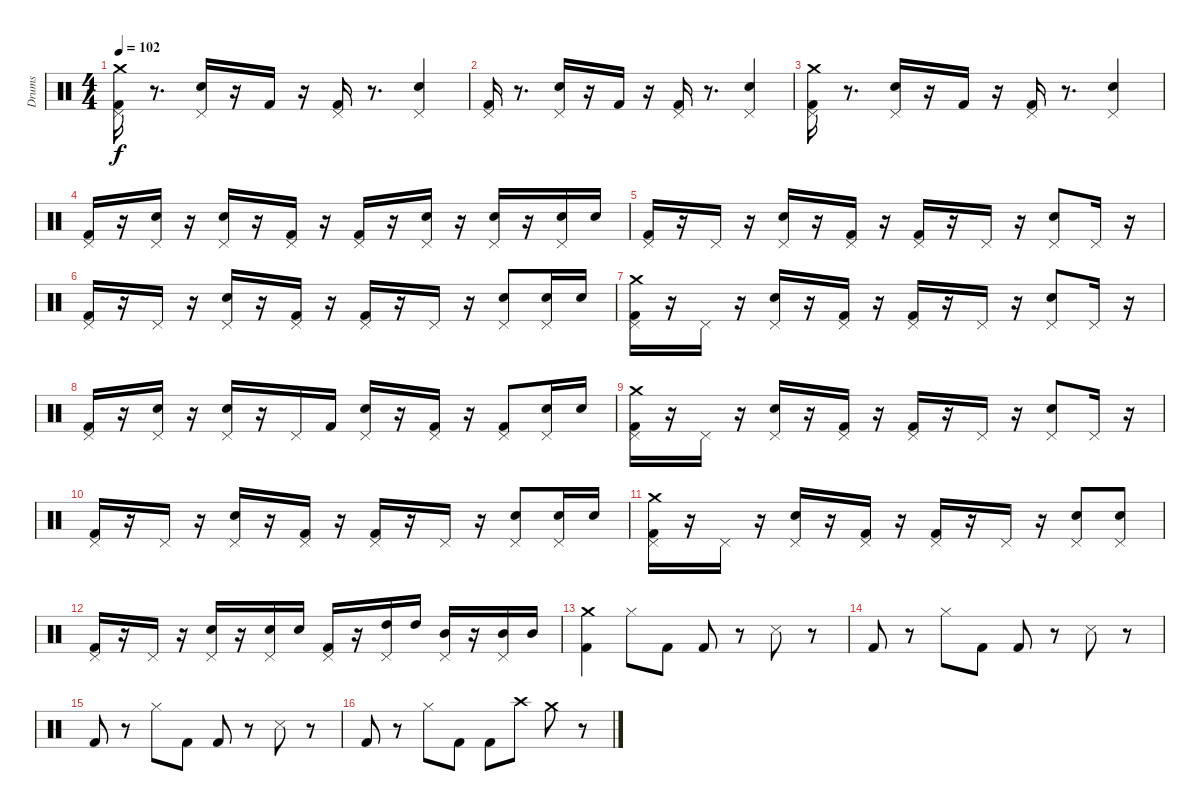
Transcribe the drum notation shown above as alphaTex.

\track ("Drums" "Drums") {instrument percussion}
\staff {score}
\articulation defaults
\ts (4 4)
\tempo 102
\clef neutral
\ks c
("Pedal Hi-Hat (hit)" "Kick (hit) 2" "Crash medium (hit)").16{dy f} r.8{d} ("Pedal Hi-Hat (hit)" "Snare (hit) 2").16 r.16 "Kick (hit) 2".16 r.16 ("Pedal Hi-Hat (hit)" "Kick (hit) 2").16 r.8{d} ("Snare (hit) 2" "Pedal Hi-Hat (hit)").4 |
("Pedal Hi-Hat (hit)" "Kick (hit) 2").16 r.8{d} ("Pedal Hi-Hat (hit)" "Snare (hit) 2").16 r.16 "Kick (hit) 2".16 r.16 ("Pedal Hi-Hat (hit)" "Kick (hit) 2").16 r.8{d} ("Snare (hit) 2" "Pedal Hi-Hat (hit)").4 |
("Crash medium (hit)" "Pedal Hi-Hat (hit)" "Kick (hit) 2").16 r.8{d} ("Pedal Hi-Hat (hit)" "Snare (hit) 2").16 r.16 "Kick (hit) 2".16 r.16 ("Pedal Hi-Hat (hit)" "Kick (hit) 2").16 r.8{d} ("Snare (hit) 2" "Pedal Hi-Hat (hit)").4 |
("Pedal Hi-Hat (hit)" "Kick (hit) 2").16 r.16 ("Pedal Hi-Hat (hit)" "Snare (hit) 2").16 r.16 ("Pedal Hi-Hat (hit)" "Snare (hit) 2").16 r.16 ("Pedal Hi-Hat (hit)" "Kick (hit) 2").16 r.16 ("Pedal Hi-Hat (hit)" "Kick (hit) 2").16 r.16 ("Pedal Hi-Hat (hit)" "Snare (hit) 2").16 r.16 ("Pedal Hi-Hat (hit)" "Snare (hit) 2").16 r.16 ("Pedal Hi-Hat (hit)" "Snare (hit) 2").16 "Snare (hit) 2".16 |
("Pedal Hi-Hat (hit)" "Kick (hit) 2").16 r.16 "Pedal Hi-Hat (hit)".16 r.16 ("Pedal Hi-Hat (hit)" "Snare (hit) 2").16 r.16 ("Pedal Hi-Hat (hit)" "Kick (hit) 2").16 r.16 ("Pedal Hi-Hat (hit)" "Kick (hit) 2").16 r.16 "Pedal Hi-Hat (hit)".16 r.16 ("Snare (hit) 2" "Pedal Hi-Hat (hit)").8 "Pedal Hi-Hat (hit)".16 r.16 |
("Pedal Hi-Hat (hit)" "Kick (hit) 2").16 r.16 "Pedal Hi-Hat (hit)".16 r.16 ("Pedal Hi-Hat (hit)" "Snare (hit) 2").16 r.16 ("Pedal Hi-Hat (hit)" "Kick (hit) 2").16 r.16 ("Pedal Hi-Hat (hit)" "Kick (hit) 2").16 r.16 "Pedal Hi-Hat (hit)".16 r.16 ("Snare (hit) 2" "Pedal Hi-Hat (hit)").8 ("Snare (hit) 2" "Pedal Hi-Hat (hit)").16 "Snare (hit) 2".16 |
("Crash medium (hit)" "Pedal Hi-Hat (hit)" "Kick (hit) 2").16 r.16 "Pedal Hi-Hat (hit)".16 r.16 ("Pedal Hi-Hat (hit)" "Snare (hit) 2").16 r.16 ("Pedal Hi-Hat (hit)" "Kick (hit) 2").16 r.16 ("Pedal Hi-Hat (hit)" "Kick (hit) 2").16 r.16 "Pedal Hi-Hat (hit)".16 r.16 ("Snare (hit) 2" "Pedal Hi-Hat (hit)").8 "Pedal Hi-Hat (hit)".16 r.16 |
("Pedal Hi-Hat (hit)" "Kick (hit) 2").16 r.16 ("Snare (hit) 2" "Pedal Hi-Hat (hit)").16 r.16 ("Pedal Hi-Hat (hit)" "Snare (hit) 2").16 r.16 "Pedal Hi-Hat (hit)".16 "Kick (hit) 2".16 ("Snare (hit) 2" "Pedal Hi-Hat (hit)").16 r.16 ("Kick (hit) 2" "Pedal Hi-Hat (hit)").16 r.16 ("Kick (hit) 2" "Pedal Hi-Hat (hit)").8 ("Snare (hit) 2" "Pedal Hi-Hat (hit)").16 "Snare (hit) 2".16 |
("Crash medium (hit)" "Pedal Hi-Hat (hit)" "Kick (hit) 2").16 r.16 "Pedal Hi-Hat (hit)".16 r.16 ("Pedal Hi-Hat (hit)" "Snare (hit) 2").16 r.16 ("Pedal Hi-Hat (hit)" "Kick (hit) 2").16 r.16 ("Pedal Hi-Hat (hit)" "Kick (hit) 2").16 r.16 "Pedal Hi-Hat (hit)".16 r.16 ("Snare (hit) 2" "Pedal Hi-Hat (hit)").8 "Pedal Hi-Hat (hit)".16 r.16 |
("Pedal Hi-Hat (hit)" "Kick (hit) 2").16 r.16 "Pedal Hi-Hat (hit)".16 r.16 ("Pedal Hi-Hat (hit)" "Snare (hit) 2").16 r.16 ("Pedal Hi-Hat (hit)" "Kick (hit) 2").16 r.16 ("Pedal Hi-Hat (hit)" "Kick (hit) 2").16 r.16 "Pedal Hi-Hat (hit)".16 r.16 ("Snare (hit) 2" "Pedal Hi-Hat (hit)").8 ("Snare (hit) 2" "Pedal Hi-Hat (hit)").16 "Snare (hit) 2".16 |
("Crash medium (hit)" "Pedal Hi-Hat (hit)" "Kick (hit) 2").16 r.16 "Pedal Hi-Hat (hit)".16 r.16 ("Pedal Hi-Hat (hit)" "Snare (hit) 2").16 r.16 ("Pedal Hi-Hat (hit)" "Kick (hit) 2").16 r.16 ("Pedal Hi-Hat (hit)" "Kick (hit) 2").16 r.16 "Pedal Hi-Hat (hit)".16 r.16 ("Snare (hit) 2" "Pedal Hi-Hat (hit)").8 ("Snare (hit) 2" "Pedal Hi-Hat (hit)").8 |
("Pedal Hi-Hat (hit)" "Kick (hit) 2").16 r.16 "Pedal Hi-Hat (hit)".16 r.16 ("Pedal Hi-Hat (hit)" "Snare (hit) 2").16 r.16 ("Pedal Hi-Hat (hit)" "Snare (hit) 2").16 "Snare (hit) 2".16 ("Pedal Hi-Hat (hit)" "Kick (hit) 2").16 r.16 ("High Tom (hit)" "Pedal Hi-Hat (hit)").16 "High Tom (hit)".16 ("Mid Tom (hit)" "Pedal Hi-Hat (hit)").16 r.16 ("Mid Tom (hit)" "Pedal Hi-Hat (hit)").16 "Mid Tom (hit)".16 |
("Crash medium (hit)" "Kick (hit) 2").4 "Hi-Hat (closed)".8 "Kick (hit) 2".8 "Kick (hit) 2".8 r.8 "Snare (side stick) 3".8 r.8 |
"Kick (hit) 2".8 r.8 "Hi-Hat (closed)".8 "Kick (hit) 2".8 "Kick (hit) 2".8 r.8 "Snare (side stick) 3".8 r.8 |
"Kick (hit) 2".8 r.8 "Hi-Hat (closed)".8 "Kick (hit) 2".8 "Kick (hit) 2".8 r.8 "Snare (side stick) 3".8 r.8 |
"Kick (hit) 2".8 r.8 "Hi-Hat (closed)".8 "Kick (hit) 2".8 "Kick (hit) 2".8 "Crash high (hit)".8 "Crash medium (hit)".8 r.8
